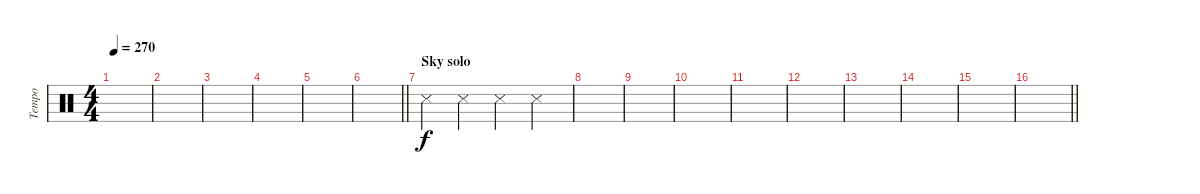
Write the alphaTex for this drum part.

\track ("Tempo" "Tempo") {instrument percussion}
\staff {score}
\articulation defaults
\ts (4 4)
\tempo 270
\clef neutral
\ks c
|
|
|
|
|
\barLineRight lightlight
|
\section ("" "Sky solo")
"Snare (side stick) 3".4 "Snare (side stick) 3".4 "Snare (side stick) 3".4 "Snare (side stick) 3".4 |
|
|
|
|
|
|
|
|
\barLineRight lightlight
